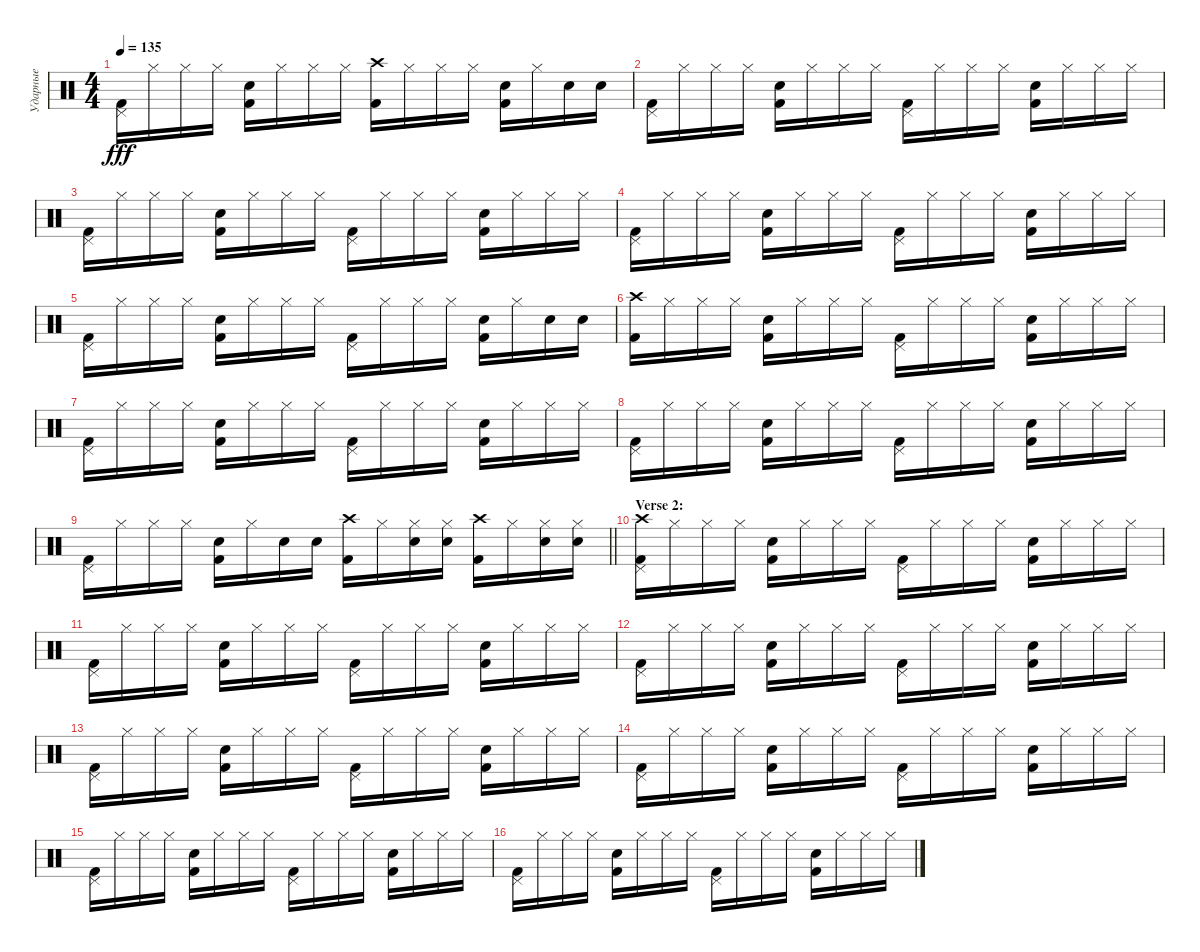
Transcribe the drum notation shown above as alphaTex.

\track ("Ударные" "Ударные") {instrument percussion}
\staff {score}
\articulation defaults
\ts (4 4)
\tempo 135
\clef neutral
\ks c
("Pedal Hi-Hat (hit)" "Kick (hit) 2").16{dy fff} "Hi-Hat (closed)".16 "Hi-Hat (closed)".16 "Hi-Hat (closed)".16 ("Snare (hit) 2" "Kick (hit) 2").16 "Hi-Hat (closed)".16 "Hi-Hat (closed)".16 "Hi-Hat (closed)".16 ("Crash high (hit)" "Kick (hit) 2").16 "Hi-Hat (closed)".16 "Hi-Hat (closed)".16 "Hi-Hat (closed)".16 ("Snare (hit) 2" "Kick (hit) 2").16 "Hi-Hat (closed)".16 "Snare (hit) 2".16 "Snare (hit) 2".16 |
("Pedal Hi-Hat (hit)" "Kick (hit) 2").16 "Hi-Hat (closed)".16 "Hi-Hat (closed)".16 "Hi-Hat (closed)".16 ("Snare (hit) 2" "Kick (hit) 2").16 "Hi-Hat (closed)".16 "Hi-Hat (closed)".16 "Hi-Hat (closed)".16 ("Pedal Hi-Hat (hit)" "Kick (hit) 2").16 "Hi-Hat (closed)".16 "Hi-Hat (closed)".16 "Hi-Hat (closed)".16 ("Snare (hit) 2" "Kick (hit) 2").16 "Hi-Hat (closed)".16 "Hi-Hat (closed)".16 "Hi-Hat (closed)".16 |
("Pedal Hi-Hat (hit)" "Kick (hit) 2").16 "Hi-Hat (closed)".16 "Hi-Hat (closed)".16 "Hi-Hat (closed)".16 ("Snare (hit) 2" "Kick (hit) 2").16 "Hi-Hat (closed)".16 "Hi-Hat (closed)".16 "Hi-Hat (closed)".16 ("Pedal Hi-Hat (hit)" "Kick (hit) 2").16 "Hi-Hat (closed)".16 "Hi-Hat (closed)".16 "Hi-Hat (closed)".16 ("Snare (hit) 2" "Kick (hit) 2").16 "Hi-Hat (closed)".16 "Hi-Hat (closed)".16 "Hi-Hat (closed)".16 |
("Pedal Hi-Hat (hit)" "Kick (hit) 2").16 "Hi-Hat (closed)".16 "Hi-Hat (closed)".16 "Hi-Hat (closed)".16 ("Snare (hit) 2" "Kick (hit) 2").16 "Hi-Hat (closed)".16 "Hi-Hat (closed)".16 "Hi-Hat (closed)".16 ("Pedal Hi-Hat (hit)" "Kick (hit) 2").16 "Hi-Hat (closed)".16 "Hi-Hat (closed)".16 "Hi-Hat (closed)".16 ("Snare (hit) 2" "Kick (hit) 2").16 "Hi-Hat (closed)".16 "Hi-Hat (closed)".16 "Hi-Hat (closed)".16 |
("Pedal Hi-Hat (hit)" "Kick (hit) 2").16 "Hi-Hat (closed)".16 "Hi-Hat (closed)".16 "Hi-Hat (closed)".16 ("Snare (hit) 2" "Kick (hit) 2").16 "Hi-Hat (closed)".16 "Hi-Hat (closed)".16 "Hi-Hat (closed)".16 ("Pedal Hi-Hat (hit)" "Kick (hit) 2").16 "Hi-Hat (closed)".16 "Hi-Hat (closed)".16 "Hi-Hat (closed)".16 ("Snare (hit) 2" "Kick (hit) 2").16 "Hi-Hat (closed)".16 "Snare (hit) 2".16 "Snare (hit) 2".16 |
("Crash high (hit)" "Kick (hit) 2").16 "Hi-Hat (closed)".16 "Hi-Hat (closed)".16 "Hi-Hat (closed)".16 ("Snare (hit) 2" "Kick (hit) 2").16 "Hi-Hat (closed)".16 "Hi-Hat (closed)".16 "Hi-Hat (closed)".16 ("Pedal Hi-Hat (hit)" "Kick (hit) 2").16 "Hi-Hat (closed)".16 "Hi-Hat (closed)".16 "Hi-Hat (closed)".16 ("Snare (hit) 2" "Kick (hit) 2").16 "Hi-Hat (closed)".16 "Hi-Hat (closed)".16 "Hi-Hat (closed)".16 |
("Pedal Hi-Hat (hit)" "Kick (hit) 2").16 "Hi-Hat (closed)".16 "Hi-Hat (closed)".16 "Hi-Hat (closed)".16 ("Snare (hit) 2" "Kick (hit) 2").16 "Hi-Hat (closed)".16 "Hi-Hat (closed)".16 "Hi-Hat (closed)".16 ("Pedal Hi-Hat (hit)" "Kick (hit) 2").16 "Hi-Hat (closed)".16 "Hi-Hat (closed)".16 "Hi-Hat (closed)".16 ("Snare (hit) 2" "Kick (hit) 2").16 "Hi-Hat (closed)".16 "Hi-Hat (closed)".16 "Hi-Hat (closed)".16 |
("Pedal Hi-Hat (hit)" "Kick (hit) 2").16 "Hi-Hat (closed)".16 "Hi-Hat (closed)".16 "Hi-Hat (closed)".16 ("Snare (hit) 2" "Kick (hit) 2").16 "Hi-Hat (closed)".16 "Hi-Hat (closed)".16 "Hi-Hat (closed)".16 ("Pedal Hi-Hat (hit)" "Kick (hit) 2").16 "Hi-Hat (closed)".16 "Hi-Hat (closed)".16 "Hi-Hat (closed)".16 ("Snare (hit) 2" "Kick (hit) 2").16 "Hi-Hat (closed)".16 "Hi-Hat (closed)".16 "Hi-Hat (closed)".16 |
\barLineRight lightlight
("Pedal Hi-Hat (hit)" "Kick (hit) 2").16 "Hi-Hat (closed)".16 "Hi-Hat (closed)".16 "Hi-Hat (closed)".16 ("Snare (hit) 2" "Kick (hit) 2").16 "Hi-Hat (closed)".16 "Snare (hit) 2".16 "Snare (hit) 2".16 ("Crash high (hit)" "Kick (hit) 2").16 "Hi-Hat (closed)".16 ("Hi-Hat (closed)" "Snare (hit) 2").16 ("Hi-Hat (closed)" "Snare (hit) 2").16 ("Crash high (hit)" "Kick (hit) 2").16 "Hi-Hat (closed)".16 ("Hi-Hat (closed)" "Snare (hit) 2").16 ("Hi-Hat (closed)" "Snare (hit) 2").16 |
\section ("" "Verse 2:")
("Pedal Hi-Hat (hit)" "Crash high (hit)" "Kick (hit) 2").16 "Hi-Hat (closed)".16 "Hi-Hat (closed)".16 "Hi-Hat (closed)".16 ("Snare (hit) 2" "Kick (hit) 2").16 "Hi-Hat (closed)".16 "Hi-Hat (closed)".16 "Hi-Hat (closed)".16 ("Pedal Hi-Hat (hit)" "Kick (hit) 2").16 "Hi-Hat (closed)".16 "Hi-Hat (closed)".16 "Hi-Hat (closed)".16 ("Snare (hit) 2" "Kick (hit) 2").16 "Hi-Hat (closed)".16 "Hi-Hat (closed)".16 "Hi-Hat (closed)".16 |
("Pedal Hi-Hat (hit)" "Kick (hit) 2").16 "Hi-Hat (closed)".16 "Hi-Hat (closed)".16 "Hi-Hat (closed)".16 ("Snare (hit) 2" "Kick (hit) 2").16 "Hi-Hat (closed)".16 "Hi-Hat (closed)".16 "Hi-Hat (closed)".16 ("Pedal Hi-Hat (hit)" "Kick (hit) 2").16 "Hi-Hat (closed)".16 "Hi-Hat (closed)".16 "Hi-Hat (closed)".16 ("Snare (hit) 2" "Kick (hit) 2").16 "Hi-Hat (closed)".16 "Hi-Hat (closed)".16 "Hi-Hat (closed)".16 |
("Pedal Hi-Hat (hit)" "Kick (hit) 2").16 "Hi-Hat (closed)".16 "Hi-Hat (closed)".16 "Hi-Hat (closed)".16 ("Snare (hit) 2" "Kick (hit) 2").16 "Hi-Hat (closed)".16 "Hi-Hat (closed)".16 "Hi-Hat (closed)".16 ("Pedal Hi-Hat (hit)" "Kick (hit) 2").16 "Hi-Hat (closed)".16 "Hi-Hat (closed)".16 "Hi-Hat (closed)".16 ("Snare (hit) 2" "Kick (hit) 2").16 "Hi-Hat (closed)".16 "Hi-Hat (closed)".16 "Hi-Hat (closed)".16 |
("Pedal Hi-Hat (hit)" "Kick (hit) 2").16 "Hi-Hat (closed)".16 "Hi-Hat (closed)".16 "Hi-Hat (closed)".16 ("Snare (hit) 2" "Kick (hit) 2").16 "Hi-Hat (closed)".16 "Hi-Hat (closed)".16 "Hi-Hat (closed)".16 ("Pedal Hi-Hat (hit)" "Kick (hit) 2").16 "Hi-Hat (closed)".16 "Hi-Hat (closed)".16 "Hi-Hat (closed)".16 ("Snare (hit) 2" "Kick (hit) 2").16 "Hi-Hat (closed)".16 "Hi-Hat (closed)".16 "Hi-Hat (closed)".16 |
("Pedal Hi-Hat (hit)" "Kick (hit) 2").16 "Hi-Hat (closed)".16 "Hi-Hat (closed)".16 "Hi-Hat (closed)".16 ("Snare (hit) 2" "Kick (hit) 2").16 "Hi-Hat (closed)".16 "Hi-Hat (closed)".16 "Hi-Hat (closed)".16 ("Pedal Hi-Hat (hit)" "Kick (hit) 2").16 "Hi-Hat (closed)".16 "Hi-Hat (closed)".16 "Hi-Hat (closed)".16 ("Snare (hit) 2" "Kick (hit) 2").16 "Hi-Hat (closed)".16 "Hi-Hat (closed)".16 "Hi-Hat (closed)".16 |
("Pedal Hi-Hat (hit)" "Kick (hit) 2").16 "Hi-Hat (closed)".16 "Hi-Hat (closed)".16 "Hi-Hat (closed)".16 ("Snare (hit) 2" "Kick (hit) 2").16 "Hi-Hat (closed)".16 "Hi-Hat (closed)".16 "Hi-Hat (closed)".16 ("Pedal Hi-Hat (hit)" "Kick (hit) 2").16 "Hi-Hat (closed)".16 "Hi-Hat (closed)".16 "Hi-Hat (closed)".16 ("Snare (hit) 2" "Kick (hit) 2").16 "Hi-Hat (closed)".16 "Hi-Hat (closed)".16 "Hi-Hat (closed)".16 |
("Pedal Hi-Hat (hit)" "Kick (hit) 2").16 "Hi-Hat (closed)".16 "Hi-Hat (closed)".16 "Hi-Hat (closed)".16 ("Snare (hit) 2" "Kick (hit) 2").16 "Hi-Hat (closed)".16 "Hi-Hat (closed)".16 "Hi-Hat (closed)".16 ("Pedal Hi-Hat (hit)" "Kick (hit) 2").16 "Hi-Hat (closed)".16 "Hi-Hat (closed)".16 "Hi-Hat (closed)".16 ("Snare (hit) 2" "Kick (hit) 2").16 "Hi-Hat (closed)".16 "Hi-Hat (closed)".16 "Hi-Hat (closed)".16
